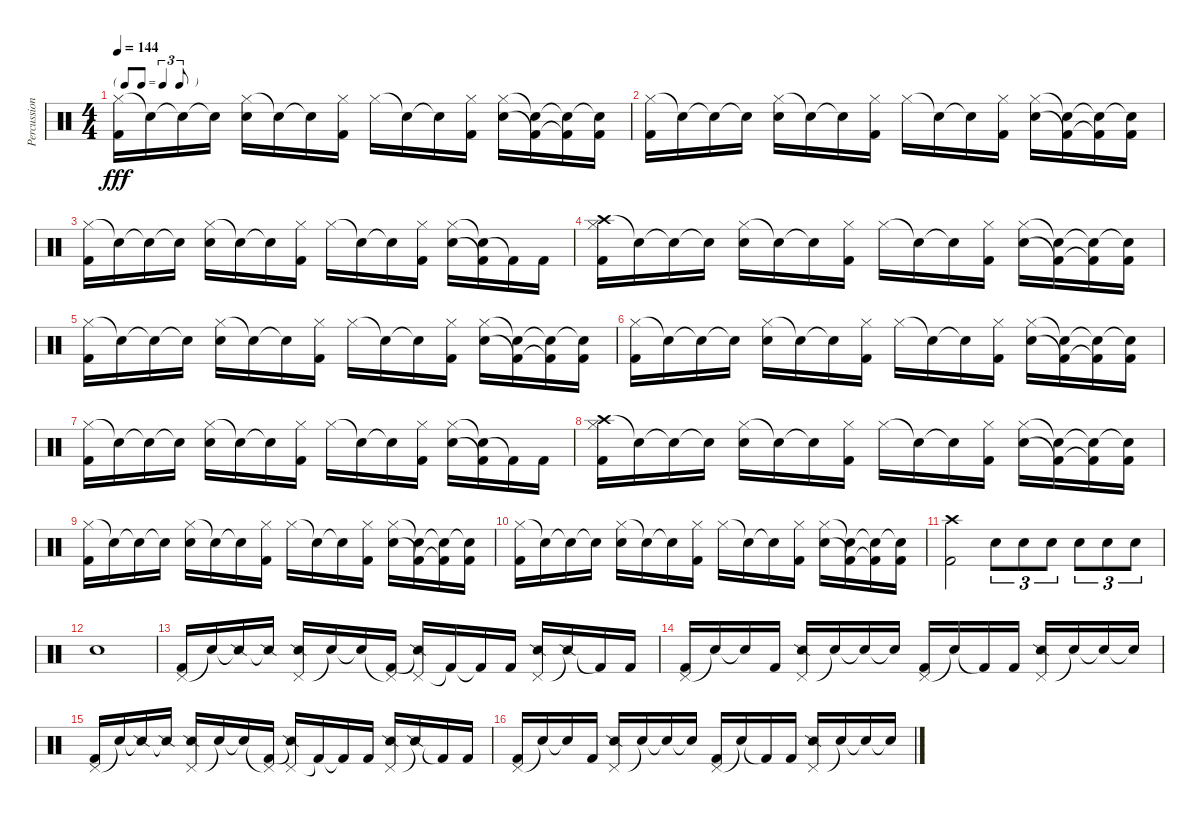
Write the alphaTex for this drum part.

\track ("Percussion" "Percussion") {instrument percussion}
\staff {score}
\articulation defaults
\ts (4 4)
\tf triplet8th
\tempo 144
\clef neutral
\ks c
("Hi-Hat (closed)" "Kick (hit) 2").16{dy fff} "Snare (hit)"{t}.16 "Snare (hit)"{t}.16 "Snare (hit)"{t}.16 ("Hi-Hat (closed)" "Electric Snare (hit)").16 "Snare (hit)"{t}.16 "Snare (hit)"{t}.16 ("Hi-Hat (closed)" "Kick (hit) 2").16 "Hi-Hat (closed)".16 "Snare (hit)"{t}.16 "Snare (hit)"{t}.16 ("Hi-Hat (closed)" "Kick (hit) 2").16 ("Hi-Hat (closed)" "Electric Snare (hit)").16 ("Snare (hit)"{t} "Kick (hit) 2"{t}).16 ("Snare (hit)"{t} "Kick (hit) 2"{t}).16 ("Snare (hit)"{t} "Kick (hit) 2").16 |
("Hi-Hat (closed)" "Kick (hit) 2").16 "Snare (hit)"{t}.16 "Snare (hit)"{t}.16 "Snare (hit)"{t}.16 ("Hi-Hat (closed)" "Electric Snare (hit)").16 "Snare (hit)"{t}.16 "Snare (hit)"{t}.16 ("Hi-Hat (closed)" "Kick (hit) 2").16 "Hi-Hat (closed)".16 "Snare (hit)"{t}.16 "Snare (hit)"{t}.16 ("Hi-Hat (closed)" "Kick (hit) 2").16 ("Hi-Hat (closed)" "Electric Snare (hit)").16 ("Snare (hit)"{t} "Kick (hit) 2"{t}).16 ("Snare (hit)"{t} "Kick (hit) 2"{t}).16 ("Snare (hit)"{t} "Kick (hit) 2").16 |
("Hi-Hat (closed)" "Kick (hit) 2").16 "Snare (hit)"{t}.16 "Snare (hit)"{t}.16 "Snare (hit)"{t}.16 ("Hi-Hat (closed)" "Electric Snare (hit)").16 "Snare (hit)"{t}.16 "Snare (hit)"{t}.16 ("Hi-Hat (closed)" "Kick (hit) 2").16 "Hi-Hat (closed)".16 "Snare (hit)"{t}.16 "Snare (hit)"{t}.16 ("Hi-Hat (closed)" "Kick (hit) 2").16 ("Hi-Hat (closed)" "Electric Snare (hit)").16 ("Snare (hit)"{t} "Kick (hit) 2"{t}).16 "Kick (hit) 2"{t}.16 "Kick (hit) 2".16 |
("Crash high (hit)" "Hi-Hat (closed)" "Kick (hit) 2").16 "Snare (hit)"{t}.16 "Snare (hit)"{t}.16 "Snare (hit)"{t}.16 ("Hi-Hat (closed)" "Electric Snare (hit)").16 "Snare (hit)"{t}.16 "Snare (hit)"{t}.16 ("Hi-Hat (closed)" "Kick (hit) 2").16 "Hi-Hat (closed)".16 "Snare (hit)"{t}.16 "Snare (hit)"{t}.16 ("Hi-Hat (closed)" "Kick (hit) 2").16 ("Hi-Hat (closed)" "Electric Snare (hit)").16 ("Snare (hit)"{t} "Kick (hit) 2"{t}).16 ("Snare (hit)"{t} "Kick (hit) 2"{t}).16 ("Snare (hit)"{t} "Kick (hit) 2").16 |
("Hi-Hat (closed)" "Kick (hit) 2").16 "Snare (hit)"{t}.16 "Snare (hit)"{t}.16 "Snare (hit)"{t}.16 ("Hi-Hat (closed)" "Electric Snare (hit)").16 "Snare (hit)"{t}.16 "Snare (hit)"{t}.16 ("Hi-Hat (closed)" "Kick (hit) 2").16 "Hi-Hat (closed)".16 "Snare (hit)"{t}.16 "Snare (hit)"{t}.16 ("Hi-Hat (closed)" "Kick (hit) 2").16 ("Hi-Hat (closed)" "Electric Snare (hit)").16 ("Snare (hit)"{t} "Kick (hit) 2"{t}).16 ("Snare (hit)"{t} "Kick (hit) 2"{t}).16 ("Snare (hit)"{t} "Kick (hit) 2").16 |
("Hi-Hat (closed)" "Kick (hit) 2").16 "Snare (hit)"{t}.16 "Snare (hit)"{t}.16 "Snare (hit)"{t}.16 ("Hi-Hat (closed)" "Electric Snare (hit)").16 "Snare (hit)"{t}.16 "Snare (hit)"{t}.16 ("Hi-Hat (closed)" "Kick (hit) 2").16 "Hi-Hat (closed)".16 "Snare (hit)"{t}.16 "Snare (hit)"{t}.16 ("Hi-Hat (closed)" "Kick (hit) 2").16 ("Hi-Hat (closed)" "Electric Snare (hit)").16 ("Snare (hit)"{t} "Kick (hit) 2"{t}).16 ("Snare (hit)"{t} "Kick (hit) 2"{t}).16 ("Snare (hit)"{t} "Kick (hit) 2").16 |
("Hi-Hat (closed)" "Kick (hit) 2").16 "Snare (hit)"{t}.16 "Snare (hit)"{t}.16 "Snare (hit)"{t}.16 ("Hi-Hat (closed)" "Electric Snare (hit)").16 "Snare (hit)"{t}.16 "Snare (hit)"{t}.16 ("Hi-Hat (closed)" "Kick (hit) 2").16 "Hi-Hat (closed)".16 "Snare (hit)"{t}.16 "Snare (hit)"{t}.16 ("Hi-Hat (closed)" "Kick (hit) 2").16 ("Hi-Hat (closed)" "Electric Snare (hit)").16 ("Snare (hit)"{t} "Kick (hit) 2"{t}).16 "Kick (hit) 2"{t}.16 "Kick (hit) 2".16 |
("Crash high (hit)" "Hi-Hat (closed)" "Kick (hit) 2").16 "Snare (hit)"{t}.16 "Snare (hit)"{t}.16 "Snare (hit)"{t}.16 ("Hi-Hat (closed)" "Electric Snare (hit)").16 "Snare (hit)"{t}.16 "Snare (hit)"{t}.16 ("Hi-Hat (closed)" "Kick (hit) 2").16 "Hi-Hat (closed)".16 "Snare (hit)"{t}.16 "Snare (hit)"{t}.16 ("Hi-Hat (closed)" "Kick (hit) 2").16 ("Hi-Hat (closed)" "Electric Snare (hit)").16 ("Snare (hit)"{t} "Kick (hit) 2"{t}).16 ("Snare (hit)"{t} "Kick (hit) 2"{t}).16 ("Snare (hit)"{t} "Kick (hit) 2").16 |
("Hi-Hat (closed)" "Kick (hit) 2").16 "Snare (hit)"{t}.16 "Snare (hit)"{t}.16 "Snare (hit)"{t}.16 ("Hi-Hat (closed)" "Electric Snare (hit)").16 "Snare (hit)"{t}.16 "Snare (hit)"{t}.16 ("Hi-Hat (closed)" "Kick (hit) 2").16 "Hi-Hat (closed)".16 "Snare (hit)"{t}.16 "Snare (hit)"{t}.16 ("Hi-Hat (closed)" "Kick (hit) 2").16 ("Hi-Hat (closed)" "Electric Snare (hit)").16 ("Snare (hit)"{t} "Kick (hit) 2"{t}).16 ("Snare (hit)"{t} "Kick (hit) 2"{t}).16 ("Snare (hit)"{t} "Kick (hit) 2").16 |
("Hi-Hat (closed)" "Kick (hit) 2").16 "Snare (hit)"{t}.16 "Snare (hit)"{t}.16 "Snare (hit)"{t}.16 ("Hi-Hat (closed)" "Electric Snare (hit)").16 "Snare (hit)"{t}.16 "Snare (hit)"{t}.16 ("Hi-Hat (closed)" "Kick (hit) 2").16 "Hi-Hat (closed)".16 "Snare (hit)"{t}.16 "Snare (hit)"{t}.16 ("Hi-Hat (closed)" "Kick (hit) 2").16 ("Hi-Hat (closed)" "Electric Snare (hit)").16 ("Snare (hit)"{t} "Kick (hit) 2"{t}).16 ("Snare (hit)"{t} "Kick (hit) 2"{t}).16 ("Snare (hit)"{t} "Kick (hit) 2").16 |
("Crash high (hit)" "Kick (hit) 2").2 "Electric Snare (hit)".8{tu (3 2)} "Electric Snare (hit)".8{tu (3 2)} "Electric Snare (hit)".8{tu (3 2)} "Electric Snare (hit)".8{tu (3 2)} "Electric Snare (hit)".8{tu (3 2)} "Electric Snare (hit)".8{tu (3 2)} |
"Electric Snare (hit)".1 |
("Pedal Hi-Hat (hit)" "Kick (hit) 2").16 "Snare (hit)"{t}.16 "Snare (side stick) 2"{t}.16 "Snare (side stick) 2"{t}.16 ("Pedal Hi-Hat (hit)" "Snare (side stick) 2").16 "Snare (hit)"{t}.16 "Snare (hit)"{t}.16 ("Pedal Hi-Hat (hit)"{t} "Kick (hit) 2").16 ("Pedal Hi-Hat (hit)" "Snare (side stick) 2"{t}).16 "Kick (hit) 2"{t}.16 "Kick (hit) 2"{t}.16 "Kick (hit) 2".16 ("Pedal Hi-Hat (hit)" "Snare (side stick) 2").16 "Snare (side stick) 2"{t}.16 "Kick (hit) 2"{t}.16 "Kick (hit) 2".16 |
("Pedal Hi-Hat (hit)" "Kick (hit) 2").16 "Snare (hit)"{t}.16 "Snare (hit)"{t}.16 "Kick (hit) 2".16 ("Pedal Hi-Hat (hit)" "Snare (side stick) 2").16 "Snare (hit)"{t}.16 "Snare (hit)"{t}.16 "Snare (hit)"{t}.16 ("Pedal Hi-Hat (hit)" "Kick (hit) 2").16 "Snare (hit)"{t}.16 "Kick (hit) 2"{t}.16 "Kick (hit) 2".16 ("Pedal Hi-Hat (hit)" "Snare (side stick) 2").16 "Snare (hit)"{t}.16 "Snare (hit)"{t}.16 "Snare (hit)"{t}.16 |
("Pedal Hi-Hat (hit)" "Kick (hit) 2").16 "Snare (hit)"{t}.16 "Snare (side stick) 2"{t}.16 "Snare (side stick) 2"{t}.16 ("Pedal Hi-Hat (hit)" "Snare (side stick) 2").16 "Snare (hit)"{t}.16 "Snare (hit)"{t}.16 ("Pedal Hi-Hat (hit)"{t} "Kick (hit) 2").16 ("Pedal Hi-Hat (hit)" "Snare (side stick) 2"{t}).16 "Kick (hit) 2"{t}.16 "Kick (hit) 2"{t}.16 "Kick (hit) 2".16 ("Pedal Hi-Hat (hit)" "Snare (side stick) 2").16 "Snare (side stick) 2"{t}.16 "Kick (hit) 2"{t}.16 "Kick (hit) 2".16 |
("Pedal Hi-Hat (hit)" "Kick (hit) 2").16 "Snare (hit)"{t}.16 "Snare (hit)"{t}.16 "Kick (hit) 2".16 ("Pedal Hi-Hat (hit)" "Snare (side stick) 2").16 "Snare (hit)"{t}.16 "Snare (hit)"{t}.16 "Snare (hit)"{t}.16 ("Pedal Hi-Hat (hit)" "Kick (hit) 2").16 "Snare (hit)"{t}.16 "Kick (hit) 2"{t}.16 "Kick (hit) 2".16 ("Pedal Hi-Hat (hit)" "Snare (side stick) 2").16 "Snare (hit)"{t}.16 "Snare (hit)"{t}.16 "Snare (hit)"{t}.16
